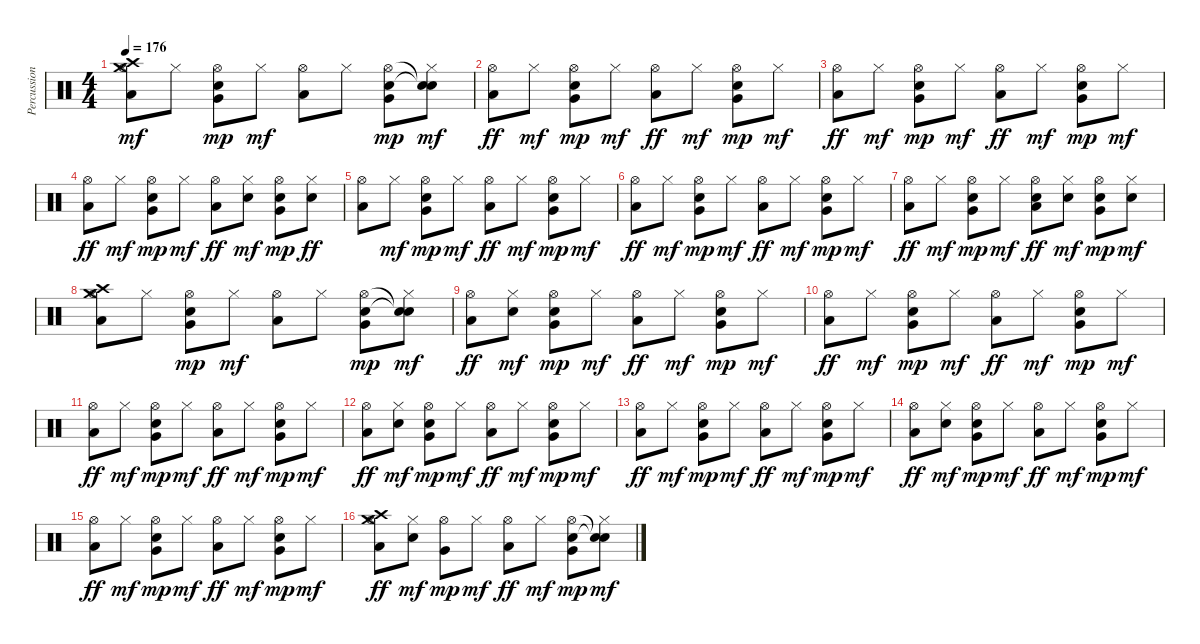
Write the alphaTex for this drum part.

\track ("Percussions" "Percussion") {instrument percussion}
\staff {score}
\articulation defaults
\ts (4 4)
\tempo 176
\clef neutral
\ks c
("Crash high (hit)" "Crash medium (hit)" "Hi-Hat (open)" "Low Floor Tom (hit)").8{dy mf} "Hi-Hat (closed)".8 ("Hi-Hat (open)" "Electric Snare (hit)" "Very Low Tom (hit)").8{dy mp} "Hi-Hat (closed)".8{dy mf} ("Hi-Hat (open)" "Low Floor Tom (hit)").8 "Hi-Hat (closed)".8 ("Hi-Hat (open)" "Electric Snare (hit)" "Very Low Tom (hit)").8{dy mp} ("Snare (hit)"{t} "Snare (hit)"{t} "Hi-Hat (closed)").8{dy mf} |
("Hi-Hat (open)" "Low Floor Tom (hit)").8{dy ff} "Hi-Hat (closed)".8{dy mf} ("Hi-Hat (open)" "Electric Snare (hit)" "Very Low Tom (hit)").8{dy mp} "Hi-Hat (closed)".8{dy mf} ("Hi-Hat (open)" "Low Floor Tom (hit)").8{dy ff} "Hi-Hat (closed)".8{dy mf} ("Hi-Hat (open)" "Electric Snare (hit)" "Very Low Tom (hit)").8{dy mp} "Hi-Hat (closed)".8{dy mf} |
("Hi-Hat (open)" "Low Floor Tom (hit)").8{dy ff} "Hi-Hat (closed)".8{dy mf} ("Hi-Hat (open)" "Electric Snare (hit)" "Very Low Tom (hit)").8{dy mp} "Hi-Hat (closed)".8{dy mf} ("Hi-Hat (open)" "Low Floor Tom (hit)").8{dy ff} "Hi-Hat (closed)".8{dy mf} ("Hi-Hat (open)" "Electric Snare (hit)" "Very Low Tom (hit)").8{dy mp} "Hi-Hat (closed)".8{dy mf} |
("Hi-Hat (open)" "Low Floor Tom (hit)").8{dy ff} "Hi-Hat (closed)".8{dy mf} ("Hi-Hat (open)" "Electric Snare (hit)" "Very Low Tom (hit)").8{dy mp} "Hi-Hat (closed)".8{dy mf} ("Hi-Hat (open)" "Low Floor Tom (hit)").8{dy ff} ("Hi-Hat (closed)" "Electric Snare (hit)").8{dy mf} ("Hi-Hat (open)" "Very Low Tom (hit)" "Electric Snare (hit)").8{dy mp} ("Hi-Hat (closed)" "Electric Snare (hit)").8{dy ff} |
("Hi-Hat (open)" "Low Floor Tom (hit)").8 "Hi-Hat (closed)".8{dy mf} ("Hi-Hat (open)" "Electric Snare (hit)" "Very Low Tom (hit)").8{dy mp} "Hi-Hat (closed)".8{dy mf} ("Hi-Hat (open)" "Low Floor Tom (hit)").8{dy ff} "Hi-Hat (closed)".8{dy mf} ("Hi-Hat (open)" "Electric Snare (hit)" "Very Low Tom (hit)").8{dy mp} "Hi-Hat (closed)".8{dy mf} |
("Hi-Hat (open)" "Low Floor Tom (hit)").8{dy ff} "Hi-Hat (closed)".8{dy mf} ("Hi-Hat (open)" "Electric Snare (hit)" "Very Low Tom (hit)").8{dy mp} "Hi-Hat (closed)".8{dy mf} ("Hi-Hat (open)" "Low Floor Tom (hit)").8{dy ff} "Hi-Hat (closed)".8{dy mf} ("Hi-Hat (open)" "Electric Snare (hit)" "Very Low Tom (hit)").8{dy mp} "Hi-Hat (closed)".8{dy mf} |
("Hi-Hat (open)" "Low Floor Tom (hit)").8{dy ff} "Hi-Hat (closed)".8{dy mf} ("Hi-Hat (open)" "Very Low Tom (hit)" "Electric Snare (hit)").8{dy mp} "Hi-Hat (closed)".8{dy mf} ("Hi-Hat (open)" "Low Floor Tom (hit)" "Electric Snare (hit)").8{dy ff} ("Hi-Hat (closed)" "Electric Snare (hit)").8{dy mf} ("Hi-Hat (open)" "Very Low Tom (hit)" "Electric Snare (hit)").8{dy mp} ("Hi-Hat (closed)" "Electric Snare (hit)").8{dy mf} |
("Crash high (hit)" "Crash medium (hit)" "Hi-Hat (open)" "Low Floor Tom (hit)").8 "Hi-Hat (closed)".8 ("Hi-Hat (open)" "Electric Snare (hit)" "Very Low Tom (hit)").8{dy mp} "Hi-Hat (closed)".8{dy mf} ("Hi-Hat (open)" "Low Floor Tom (hit)").8 "Hi-Hat (closed)".8 ("Hi-Hat (open)" "Electric Snare (hit)" "Very Low Tom (hit)").8{dy mp} ("Snare (hit)"{t} "Snare (hit)"{t} "Hi-Hat (closed)").8{dy mf} |
("Hi-Hat (open)" "Low Floor Tom (hit)").8{dy ff} ("Hi-Hat (closed)" "Electric Snare (hit)").8{dy mf} ("Hi-Hat (open)" "Electric Snare (hit)" "Very Low Tom (hit)").8{dy mp} "Hi-Hat (closed)".8{dy mf} ("Hi-Hat (open)" "Low Floor Tom (hit)").8{dy ff} "Hi-Hat (closed)".8{dy mf} ("Hi-Hat (open)" "Electric Snare (hit)" "Very Low Tom (hit)").8{dy mp} "Hi-Hat (closed)".8{dy mf} |
("Hi-Hat (open)" "Low Floor Tom (hit)").8{dy ff} "Hi-Hat (closed)".8{dy mf} ("Hi-Hat (open)" "Electric Snare (hit)" "Very Low Tom (hit)").8{dy mp} "Hi-Hat (closed)".8{dy mf} ("Hi-Hat (open)" "Low Floor Tom (hit)").8{dy ff} "Hi-Hat (closed)".8{dy mf} ("Hi-Hat (open)" "Electric Snare (hit)" "Very Low Tom (hit)").8{dy mp} "Hi-Hat (closed)".8{dy mf} |
("Hi-Hat (open)" "Low Floor Tom (hit)").8{dy ff} "Hi-Hat (closed)".8{dy mf} ("Hi-Hat (open)" "Electric Snare (hit)" "Very Low Tom (hit)").8{dy mp} "Hi-Hat (closed)".8{dy mf} ("Hi-Hat (open)" "Low Floor Tom (hit)").8{dy ff} "Hi-Hat (closed)".8{dy mf} ("Hi-Hat (open)" "Very Low Tom (hit)" "Electric Snare (hit)").8{dy mp} "Hi-Hat (closed)".8{dy mf} |
("Hi-Hat (open)" "Low Floor Tom (hit)").8{dy ff} ("Hi-Hat (closed)" "Electric Snare (hit)").8{dy mf} ("Hi-Hat (open)" "Electric Snare (hit)" "Very Low Tom (hit)").8{dy mp} "Hi-Hat (closed)".8{dy mf} ("Hi-Hat (open)" "Low Floor Tom (hit)").8{dy ff} "Hi-Hat (closed)".8{dy mf} ("Hi-Hat (open)" "Electric Snare (hit)" "Very Low Tom (hit)").8{dy mp} "Hi-Hat (closed)".8{dy mf} |
("Hi-Hat (open)" "Low Floor Tom (hit)").8{dy ff} "Hi-Hat (closed)".8{dy mf} ("Hi-Hat (open)" "Electric Snare (hit)" "Very Low Tom (hit)").8{dy mp} "Hi-Hat (closed)".8{dy mf} ("Hi-Hat (open)" "Low Floor Tom (hit)").8{dy ff} "Hi-Hat (closed)".8{dy mf} ("Hi-Hat (open)" "Electric Snare (hit)" "Very Low Tom (hit)").8{dy mp} "Hi-Hat (closed)".8{dy mf} |
("Hi-Hat (open)" "Low Floor Tom (hit)").8{dy ff} ("Hi-Hat (closed)" "Electric Snare (hit)").8{dy mf} ("Hi-Hat (open)" "Electric Snare (hit)" "Very Low Tom (hit)").8{dy mp} "Hi-Hat (closed)".8{dy mf} ("Hi-Hat (open)" "Low Floor Tom (hit)").8{dy ff} "Hi-Hat (closed)".8{dy mf} ("Hi-Hat (open)" "Electric Snare (hit)" "Very Low Tom (hit)").8{dy mp} "Hi-Hat (closed)".8{dy mf} |
("Hi-Hat (open)" "Low Floor Tom (hit)").8{dy ff} "Hi-Hat (closed)".8{dy mf} ("Hi-Hat (open)" "Electric Snare (hit)" "Very Low Tom (hit)").8{dy mp} "Hi-Hat (closed)".8{dy mf} ("Hi-Hat (open)" "Low Floor Tom (hit)").8{dy ff} "Hi-Hat (closed)".8{dy mf} ("Hi-Hat (open)" "Very Low Tom (hit)" "Electric Snare (hit)").8{dy mp} "Hi-Hat (closed)".8{dy mf} |
("Crash medium (hit)" "Crash high (hit)" "Hi-Hat (open)" "Low Floor Tom (hit)").8{dy ff} ("Hi-Hat (closed)" "Electric Snare (hit)").8{dy mf} ("Hi-Hat (open)" "Very Low Tom (hit)").8{dy mp} "Hi-Hat (closed)".8{dy mf} ("Hi-Hat (open)" "Low Floor Tom (hit)").8{dy ff} "Hi-Hat (closed)".8{dy mf} ("Hi-Hat (open)" "Electric Snare (hit)" "Very Low Tom (hit)").8{dy mp} ("Snare (hit)"{t} "Snare (hit)"{t} "Hi-Hat (closed)").8{dy mf}
